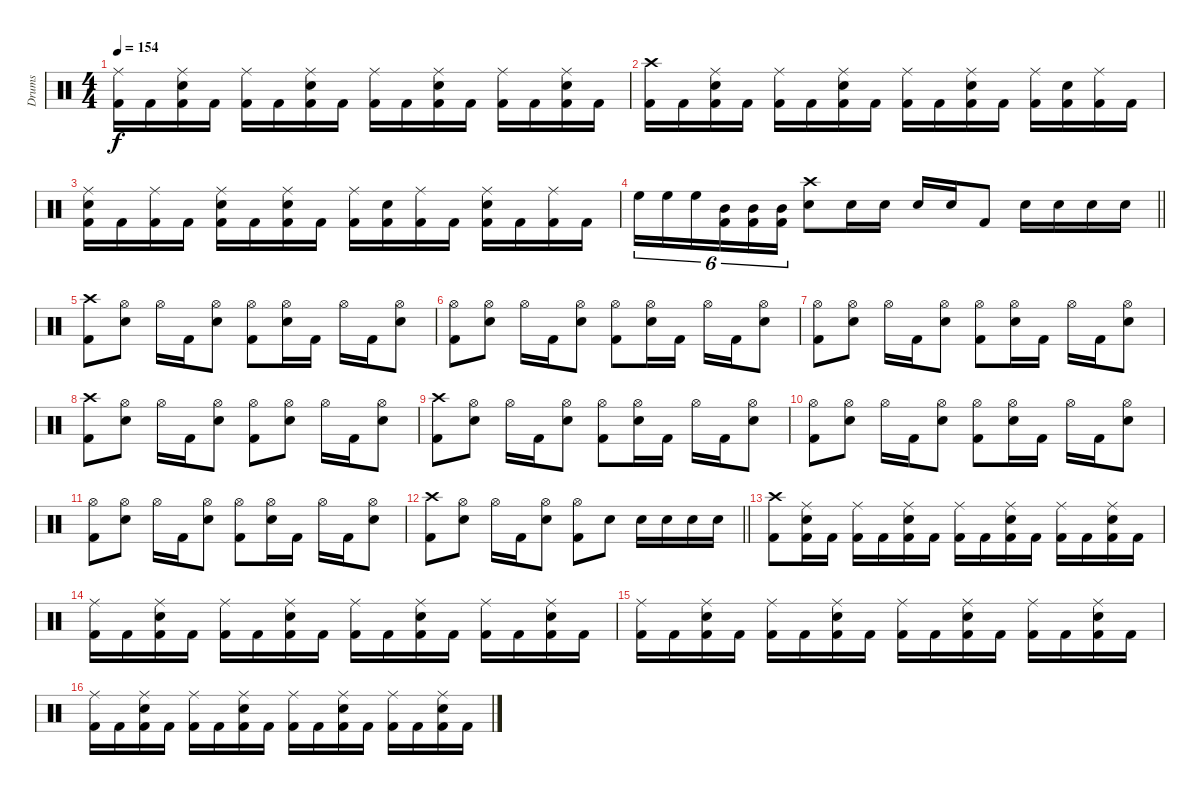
\track ("Drums" "Drums") {instrument percussion}
\staff {score}
\articulation defaults
\ts (4 4)
\tempo 154
\clef neutral
\ks c
("Ride (middle)" "Kick (hit) 2").16{dy f} "Kick (hit) 2".16 ("Ride (middle)" "Snare (hit) 2" "Kick (hit) 2").16 "Kick (hit) 2".16 ("Ride (middle)" "Kick (hit) 2").16 "Kick (hit) 2".16 ("Ride (middle)" "Snare (hit) 2" "Kick (hit) 2").16 "Kick (hit) 2".16 ("Ride (middle)" "Kick (hit) 2").16 "Kick (hit) 2".16 ("Ride (middle)" "Snare (hit) 2" "Kick (hit) 2").16 "Kick (hit) 2".16 ("Ride (middle)" "Kick (hit) 2").16 "Kick (hit) 2".16 ("Ride (middle)" "Snare (hit) 2" "Kick (hit) 2").16 "Kick (hit) 2".16 |
("Crash high (hit)" "Kick (hit) 2").16 "Kick (hit) 2".16 ("Ride (middle)" "Snare (hit) 2" "Kick (hit) 2").16 "Kick (hit) 2".16 ("Ride (middle)" "Kick (hit) 2").16 "Kick (hit) 2".16 ("Ride (middle)" "Snare (hit) 2" "Kick (hit) 2").16 "Kick (hit) 2".16 ("Ride (middle)" "Kick (hit) 2").16 "Kick (hit) 2".16 ("Ride (middle)" "Snare (hit) 2" "Kick (hit) 2").16 "Kick (hit) 2".16 ("Ride (middle)" "Kick (hit) 2").16 ("Snare (hit) 2" "Kick (hit) 2").16 ("Ride (middle)" "Kick (hit) 2").16 "Kick (hit) 2".16 |
("Ride (middle)" "Snare (hit) 2" "Kick (hit) 2").16 "Kick (hit) 2".16 ("Ride (middle)" "Kick (hit) 2").16 "Kick (hit) 2".16 ("Ride (middle)" "Snare (hit) 2" "Kick (hit) 2").16 "Kick (hit) 2".16 ("Ride (middle)" "Snare (hit) 2" "Kick (hit) 2").16 "Kick (hit) 2".16 ("Ride (middle)" "Kick (hit) 2").16 ("Snare (hit) 2" "Kick (hit) 2").16 ("Ride (middle)" "Kick (hit) 2").16 "Kick (hit) 2".16 ("Ride (middle)" "Snare (hit) 2" "Kick (hit) 2").16 "Kick (hit) 2".16 ("Ride (middle)" "Kick (hit) 2").16 "Kick (hit) 2".16 |
\barLineRight lightlight "High Floor Tom (hit)".16{tu (6 4)} "High Floor Tom (hit)".16{tu (6 4)} "High Floor Tom (hit)".16{tu (6 4)}
("Mid Tom (hit)" "Kick (hit) 2").16{tu (6 4)} ("Mid Tom (hit)" "Kick (hit) 2").16{tu (6 4)} ("Mid Tom (hit)" "Kick (hit) 2").16{tu (6 4)} ("Crash high (hit)" "Snare (hit) 2").8 "Snare (hit) 2".16 "Snare (hit) 2".16 "Snare (hit) 2".16 "Snare (hit) 2".16 "Kick (hit) 2".8 "Snare (hit) 2".16 "Snare (hit) 2".16 "Snare (hit) 2".16 "Snare (hit) 2".16 |
("Crash high (hit)" "Kick (hit) 2").8 ("Hi-Hat (open)" "Snare (hit) 2").8 "Hi-Hat (open)".16 "Kick (hit) 2".16 ("Hi-Hat (open)" "Snare (hit) 2").8 ("Hi-Hat (open)" "Kick (hit) 2").8 ("Hi-Hat (open)" "Snare (hit) 2").16 "Kick (hit) 2".16 "Hi-Hat (open)".16 "Kick (hit) 2".16 ("Hi-Hat (open)" "Snare (hit) 2").8 |
("Hi-Hat (open)" "Kick (hit) 2").8 ("Hi-Hat (open)" "Snare (hit) 2").8 "Hi-Hat (open)".16 "Kick (hit) 2".16 ("Hi-Hat (open)" "Snare (hit) 2").8 ("Hi-Hat (open)" "Kick (hit) 2").8 ("Hi-Hat (open)" "Snare (hit) 2").16 "Kick (hit) 2".16 "Hi-Hat (open)".16 "Kick (hit) 2".16 ("Hi-Hat (open)" "Snare (hit) 2").8 |
("Hi-Hat (open)" "Kick (hit) 2").8 ("Hi-Hat (open)" "Snare (hit) 2").8 "Hi-Hat (open)".16 "Kick (hit) 2".16 ("Hi-Hat (open)" "Snare (hit) 2").8 ("Hi-Hat (open)" "Kick (hit) 2").8 ("Hi-Hat (open)" "Snare (hit) 2").16 "Kick (hit) 2".16 "Hi-Hat (open)".16 "Kick (hit) 2".16 ("Hi-Hat (open)" "Snare (hit) 2").8 |
("Crash high (hit)" "Kick (hit) 2").8 ("Hi-Hat (open)" "Snare (hit) 2").8 "Hi-Hat (open)".16 "Kick (hit) 2".16 ("Hi-Hat (open)" "Snare (hit) 2").8 ("Hi-Hat (open)" "Kick (hit) 2").8 ("Hi-Hat (open)" "Snare (hit) 2").8 "Hi-Hat (open)".16 "Kick (hit) 2".16 ("Hi-Hat (open)" "Snare (hit) 2").8 |
("Crash high (hit)" "Kick (hit) 2").8 ("Hi-Hat (open)" "Snare (hit) 2").8 "Hi-Hat (open)".16 "Kick (hit) 2".16 ("Hi-Hat (open)" "Snare (hit) 2").8 ("Hi-Hat (open)" "Kick (hit) 2").8 ("Hi-Hat (open)" "Snare (hit) 2").16 "Kick (hit) 2".16 "Hi-Hat (open)".16 "Kick (hit) 2".16 ("Hi-Hat (open)" "Snare (hit) 2").8 |
("Hi-Hat (open)" "Kick (hit) 2").8 ("Hi-Hat (open)" "Snare (hit) 2").8 "Hi-Hat (open)".16 "Kick (hit) 2".16 ("Hi-Hat (open)" "Snare (hit) 2").8 ("Hi-Hat (open)" "Kick (hit) 2").8 ("Hi-Hat (open)" "Snare (hit) 2").16 "Kick (hit) 2".16 "Hi-Hat (open)".16 "Kick (hit) 2".16 ("Hi-Hat (open)" "Snare (hit) 2").8 |
("Hi-Hat (open)" "Kick (hit) 2").8 ("Hi-Hat (open)" "Snare (hit) 2").8 "Hi-Hat (open)".16 "Kick (hit) 2".16 ("Hi-Hat (open)" "Snare (hit) 2").8 ("Hi-Hat (open)" "Kick (hit) 2").8 ("Hi-Hat (open)" "Snare (hit) 2").16 "Kick (hit) 2".16 "Hi-Hat (open)".16 "Kick (hit) 2".16 ("Hi-Hat (open)" "Snare (hit) 2").8 |
\barLineRight lightlight
("Crash high (hit)" "Kick (hit) 2").8 ("Hi-Hat (open)" "Snare (hit) 2").8 "Hi-Hat (open)".16 "Kick (hit) 2".16 ("Hi-Hat (open)" "Snare (hit) 2").8 ("Hi-Hat (open)" "Kick (hit) 2").8 "Snare (hit) 2".8 "Snare (hit) 2".16 "Snare (hit) 2".16 "Snare (hit) 2".16 "Snare (hit) 2".16 |
("Crash high (hit)" "Kick (hit) 2").8 ("Ride (middle)" "Snare (hit) 2" "Kick (hit) 2").16 "Kick (hit) 2".16 ("Ride (middle)" "Kick (hit) 2").16 "Kick (hit) 2".16 ("Ride (middle)" "Snare (hit) 2" "Kick (hit) 2").16 "Kick (hit) 2".16 ("Ride (middle)" "Kick (hit) 2").16 "Kick (hit) 2".16 ("Ride (middle)" "Snare (hit) 2" "Kick (hit) 2").16 "Kick (hit) 2".16 ("Ride (middle)" "Kick (hit) 2").16 "Kick (hit) 2".16 ("Ride (middle)" "Snare (hit) 2" "Kick (hit) 2").16 "Kick (hit) 2".16 |
("Ride (middle)" "Kick (hit) 2").16 "Kick (hit) 2".16 ("Ride (middle)" "Snare (hit) 2" "Kick (hit) 2").16 "Kick (hit) 2".16 ("Ride (middle)" "Kick (hit) 2").16 "Kick (hit) 2".16 ("Ride (middle)" "Snare (hit) 2" "Kick (hit) 2").16 "Kick (hit) 2".16 ("Ride (middle)" "Kick (hit) 2").16 "Kick (hit) 2".16 ("Ride (middle)" "Snare (hit) 2" "Kick (hit) 2").16 "Kick (hit) 2".16 ("Ride (middle)" "Kick (hit) 2").16 "Kick (hit) 2".16 ("Ride (middle)" "Snare (hit) 2" "Kick (hit) 2").16 "Kick (hit) 2".16 |
("Ride (middle)" "Kick (hit) 2").16 "Kick (hit) 2".16 ("Ride (middle)" "Snare (hit) 2" "Kick (hit) 2").16 "Kick (hit) 2".16 ("Ride (middle)" "Kick (hit) 2").16 "Kick (hit) 2".16 ("Ride (middle)" "Snare (hit) 2" "Kick (hit) 2").16 "Kick (hit) 2".16 ("Ride (middle)" "Kick (hit) 2").16 "Kick (hit) 2".16 ("Ride (middle)" "Snare (hit) 2" "Kick (hit) 2").16 "Kick (hit) 2".16 ("Ride (middle)" "Kick (hit) 2").16 "Kick (hit) 2".16 ("Ride (middle)" "Snare (hit) 2" "Kick (hit) 2").16 "Kick (hit) 2".16 |
("Ride (middle)" "Kick (hit) 2").16 "Kick (hit) 2".16 ("Ride (middle)" "Snare (hit) 2" "Kick (hit) 2").16 "Kick (hit) 2".16 ("Ride (middle)" "Kick (hit) 2").16 "Kick (hit) 2".16 ("Ride (middle)" "Snare (hit) 2" "Kick (hit) 2").16 "Kick (hit) 2".16 ("Ride (middle)" "Kick (hit) 2").16 "Kick (hit) 2".16 ("Ride (middle)" "Snare (hit) 2" "Kick (hit) 2").16 "Kick (hit) 2".16 ("Ride (middle)" "Kick (hit) 2").16 "Kick (hit) 2".16 ("Ride (middle)" "Snare (hit) 2" "Kick (hit) 2").16 "Kick (hit) 2".16
